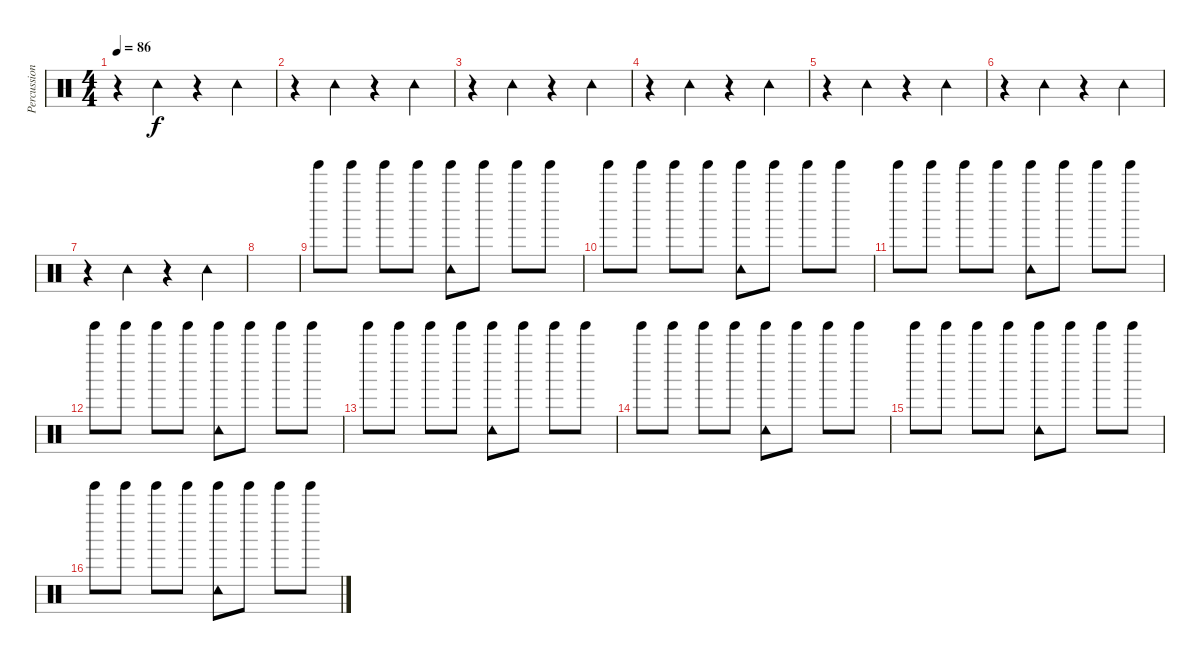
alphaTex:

\track ("Percussion" "Percussion") {instrument percussion}
\staff {score}
\articulation defaults
\ts (4 4)
\tempo 86
\clef neutral
\ks c
r.4{dy f} "Tambourine (hit)".4 r.4 "Tambourine (hit)".4 |
r.4 "Tambourine (hit)".4 r.4 "Tambourine (hit)".4 |
r.4 "Tambourine (hit)".4 r.4 "Tambourine (hit)".4 |
r.4 "Tambourine (hit)".4 r.4 "Tambourine (hit)".4 |
r.4 "Tambourine (hit)".4 r.4 "Tambourine (hit)".4 |
r.4 "Tambourine (hit)".4 r.4 "Tambourine (hit)".4 |
r.4 "Tambourine (hit)".4 r.4 "Tambourine (hit)".4 |
|
"Tinkle Bell (hit)".8 "Tinkle Bell (hit)".8 "Tinkle Bell (hit)".8 "Tinkle Bell (hit)".8 ("Tambourine (hit)" "Tinkle Bell (hit)").8 "Tinkle Bell (hit)".8 "Tinkle Bell (hit)".8 "Tinkle Bell (hit)".8 |
"Tinkle Bell (hit)".8 "Tinkle Bell (hit)".8 "Tinkle Bell (hit)".8 "Tinkle Bell (hit)".8 ("Tinkle Bell (hit)" "Tambourine (hit)").8 "Tinkle Bell (hit)".8 "Tinkle Bell (hit)".8 "Tinkle Bell (hit)".8 |
"Tinkle Bell (hit)".8 "Tinkle Bell (hit)".8 "Tinkle Bell (hit)".8 "Tinkle Bell (hit)".8 ("Tinkle Bell (hit)" "Tambourine (hit)").8 "Tinkle Bell (hit)".8 "Tinkle Bell (hit)".8 "Tinkle Bell (hit)".8 |
"Tinkle Bell (hit)".8 "Tinkle Bell (hit)".8 "Tinkle Bell (hit)".8 "Tinkle Bell (hit)".8 ("Tinkle Bell (hit)" "Tambourine (hit)").8 "Tinkle Bell (hit)".8 "Tinkle Bell (hit)".8 "Tinkle Bell (hit)".8 |
"Tinkle Bell (hit)".8 "Tinkle Bell (hit)".8 "Tinkle Bell (hit)".8 "Tinkle Bell (hit)".8 ("Tinkle Bell (hit)" "Tambourine (hit)").8 "Tinkle Bell (hit)".8 "Tinkle Bell (hit)".8 "Tinkle Bell (hit)".8 |
"Tinkle Bell (hit)".8 "Tinkle Bell (hit)".8 "Tinkle Bell (hit)".8 "Tinkle Bell (hit)".8 ("Tinkle Bell (hit)" "Tambourine (hit)").8 "Tinkle Bell (hit)".8 "Tinkle Bell (hit)".8 "Tinkle Bell (hit)".8 |
"Tinkle Bell (hit)".8 "Tinkle Bell (hit)".8 "Tinkle Bell (hit)".8 "Tinkle Bell (hit)".8 ("Tinkle Bell (hit)" "Tambourine (hit)").8 "Tinkle Bell (hit)".8 "Tinkle Bell (hit)".8 "Tinkle Bell (hit)".8 |
"Tinkle Bell (hit)".8 "Tinkle Bell (hit)".8 "Tinkle Bell (hit)".8 "Tinkle Bell (hit)".8 ("Tinkle Bell (hit)" "Tambourine (hit)").8 "Tinkle Bell (hit)".8 "Tinkle Bell (hit)".8 "Tinkle Bell (hit)".8
